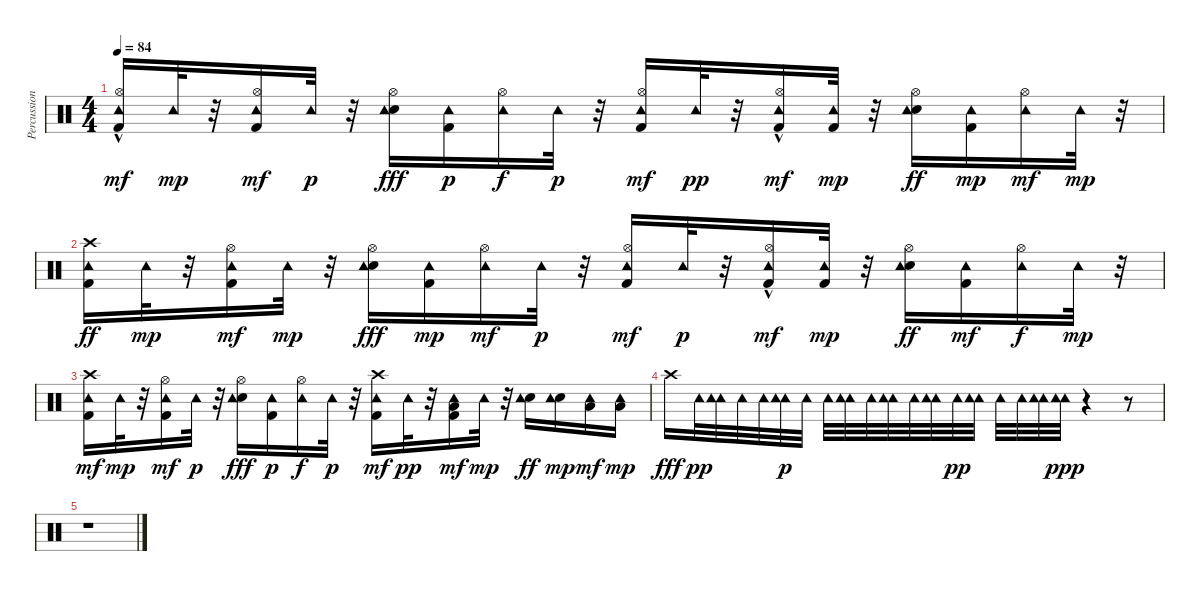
\track ("Percussions" "Percussion") {instrument percussion}
\staff {score}
\articulation defaults
\ts (4 4)
\tempo 84
\clef neutral
\ks c
("Kick (hit) 2" "Hi-Hat (open)"{hac} "Tambourine (hit)").16{dy mf} "Tambourine (hit)".32{dy mp} r.32 ("Kick (hit) 2" "Hi-Hat (open)" "Tambourine (hit)").16{dy mf} "Tambourine (hit)".32{dy p} r.32 ("Snare (hit) 2" "Hi-Hat (open)" "Tambourine (hit)").16{dy fff} ("Kick (hit) 2" "Tambourine (hit)").16{dy p} ("Hi-Hat (open)" "Tambourine (hit)").16{dy f} "Tambourine (hit)".32{dy p} r.32 ("Kick (hit) 2" "Hi-Hat (open)" "Tambourine (hit)").16{dy mf} "Tambourine (hit)".32{dy pp} r.32 ("Kick (hit) 2" "Hi-Hat (open)"{hac} "Tambourine (hit)").16{dy mf} ("Kick (hit) 2" "Tambourine (hit)").32{dy mp} r.32 ("Snare (hit) 2" "Hi-Hat (open)" "Tambourine (hit)").16{dy ff} ("Kick (hit) 2" "Tambourine (hit)").16{dy mp} ("Hi-Hat (open)" "Tambourine (hit)").16{dy mf} "Tambourine (hit)".32{dy mp} r.32 |
("Kick (hit) 2" "Crash high (hit)" "Tambourine (hit)").16{dy ff} "Tambourine (hit)".32{dy mp} r.32 ("Kick (hit) 2" "Hi-Hat (open)" "Tambourine (hit)").16{dy mf} "Tambourine (hit)".32{dy mp} r.32 ("Snare (hit) 2" "Hi-Hat (open)" "Tambourine (hit)").16{dy fff} ("Kick (hit) 2" "Tambourine (hit)").16{dy mp} ("Hi-Hat (open)" "Tambourine (hit)").16{dy mf} "Tambourine (hit)".32{dy p} r.32 ("Kick (hit) 2" "Hi-Hat (open)" "Tambourine (hit)").16{dy mf} "Tambourine (hit)".32{dy p} r.32 ("Kick (hit) 2" "Hi-Hat (open)"{hac} "Tambourine (hit)").16{dy mf} ("Kick (hit) 2" "Tambourine (hit)").32{dy mp} r.32 ("Snare (hit) 2" "Hi-Hat (open)" "Tambourine (hit)").16{dy ff} ("Kick (hit) 2" "Tambourine (hit)").16{dy mf} ("Hi-Hat (open)" "Tambourine (hit)").16{dy f} "Tambourine (hit)".32{dy mp} r.32 |
("Crash high (hit)" "Kick (hit) 2" "Tambourine (hit)").16{dy mf} "Tambourine (hit)".32{dy mp} r.32 ("Kick (hit) 2" "Hi-Hat (open)" "Tambourine (hit)").16{dy mf} "Tambourine (hit)".32{dy p} r.32 ("Snare (hit) 2" "Hi-Hat (open)" "Tambourine (hit)").16{dy fff} ("Kick (hit) 2" "Tambourine (hit)").16{dy p} ("Hi-Hat (open)" "Tambourine (hit)").16{dy f} "Tambourine (hit)".32{dy p} r.32 ("Crash high (hit)" "Kick (hit) 2" "Tambourine (hit)").16{dy mf} "Tambourine (hit)".32{dy pp} r.32 ("Low Tom (hit)" "Kick (hit) 2" "Tambourine (hit)").16{dy mf} "Tambourine (hit)".32{dy mp} r.32 ("Snare (hit) 2" "Tambourine (hit)").16{dy ff} ("Snare (hit) 2" "Tambourine (hit)").16{dy mp} ("Low Tom (hit)" "Tambourine (hit)").16{dy mf} ("Low Floor Tom (hit)" "Tambourine (hit)").16{dy mp} |
"Crash high (hit)".16{dy fff} "Tambourine (hit)".32{dy pp} ("Tambourine (hit)" "Tambourine (hit)").32 "Tambourine (hit)".32 "Tambourine (hit)".32 ("Tambourine (hit)" "Tambourine (hit)").32{dy p} "Tambourine (hit)".32 "Tambourine (hit)".32 ("Tambourine (hit)" "Tambourine (hit)").32 "Tambourine (hit)".32 ("Tambourine (hit)" "Tambourine (hit)").32 "Tambourine (hit)".32 ("Tambourine (hit)" "Tambourine (hit)").32 "Tambourine (hit)".32{dy pp} ("Tambourine (hit)" "Tambourine (hit)").32 "Tambourine (hit)".32 "Tambourine (hit)".32 ("Tambourine (hit)" "Tambourine (hit)").32 ("Tambourine (hit)" "Tambourine (hit)").32{dy ppp} r.4 r.8 |
r.1
